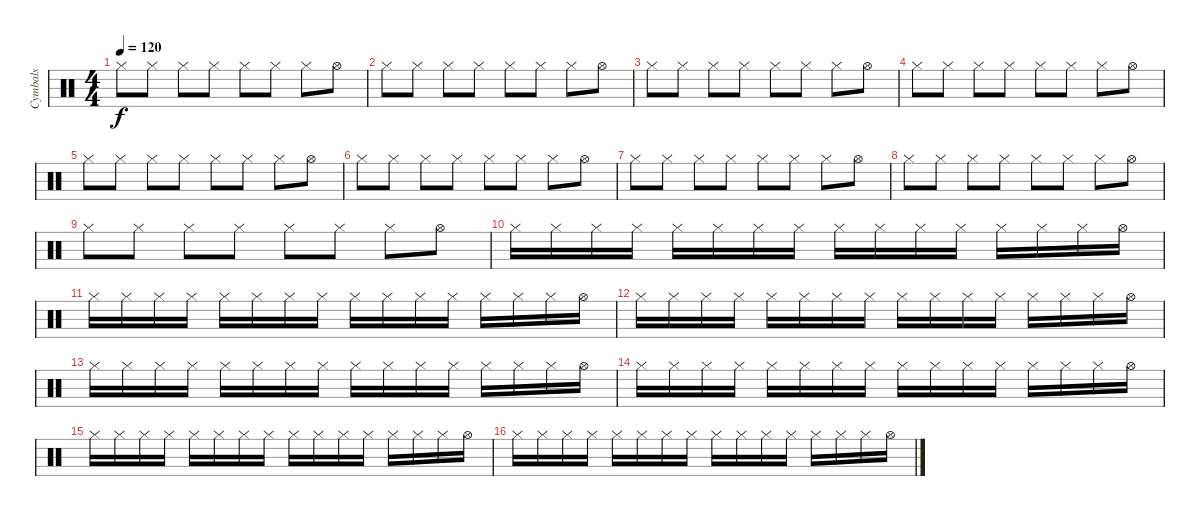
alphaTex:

\track ("Cymbals" "Cymbals") {instrument percussion}
\staff {score}
\articulation defaults
\ts (4 4)
\tempo 120
\clef neutral
\ks c "Hi-Hat (closed)".8{dy f} "Hi-Hat (closed)".8 "Hi-Hat (closed)".8 "Hi-Hat (closed)".8 "Hi-Hat (closed)".8 "Hi-Hat (closed)".8 "Hi-Hat (closed)".8 "Hi-Hat (open)".8
|
"Hi-Hat (closed)".8 "Hi-Hat (closed)".8 "Hi-Hat (closed)".8 "Hi-Hat (closed)".8 "Hi-Hat (closed)".8 "Hi-Hat (closed)".8 "Hi-Hat (closed)".8 "Hi-Hat (open)".8 |
"Hi-Hat (closed)".8 "Hi-Hat (closed)".8 "Hi-Hat (closed)".8 "Hi-Hat (closed)".8 "Hi-Hat (closed)".8 "Hi-Hat (closed)".8 "Hi-Hat (closed)".8 "Hi-Hat (open)".8 |
"Hi-Hat (closed)".8 "Hi-Hat (closed)".8 "Hi-Hat (closed)".8 "Hi-Hat (closed)".8 "Hi-Hat (closed)".8 "Hi-Hat (closed)".8 "Hi-Hat (closed)".8 "Hi-Hat (open)".8 |
"Hi-Hat (closed)".8 "Hi-Hat (closed)".8 "Hi-Hat (closed)".8 "Hi-Hat (closed)".8 "Hi-Hat (closed)".8 "Hi-Hat (closed)".8 "Hi-Hat (closed)".8 "Hi-Hat (open)".8 |
"Hi-Hat (closed)".8 "Hi-Hat (closed)".8 "Hi-Hat (closed)".8 "Hi-Hat (closed)".8 "Hi-Hat (closed)".8 "Hi-Hat (closed)".8 "Hi-Hat (closed)".8 "Hi-Hat (open)".8 |
"Hi-Hat (closed)".8 "Hi-Hat (closed)".8 "Hi-Hat (closed)".8 "Hi-Hat (closed)".8 "Hi-Hat (closed)".8 "Hi-Hat (closed)".8 "Hi-Hat (closed)".8 "Hi-Hat (open)".8 |
"Hi-Hat (closed)".8 "Hi-Hat (closed)".8 "Hi-Hat (closed)".8 "Hi-Hat (closed)".8 "Hi-Hat (closed)".8 "Hi-Hat (closed)".8 "Hi-Hat (closed)".8 "Hi-Hat (open)".8 |
"Hi-Hat (closed)".8 "Hi-Hat (closed)".8 "Hi-Hat (closed)".8 "Hi-Hat (closed)".8 "Hi-Hat (closed)".8 "Hi-Hat (closed)".8 "Hi-Hat (closed)".8 "Hi-Hat (open)".8 |
"Hi-Hat (closed)".16 "Hi-Hat (closed)".16 "Hi-Hat (closed)".16 "Hi-Hat (closed)".16 "Hi-Hat (closed)".16 "Hi-Hat (closed)".16 "Hi-Hat (closed)".16 "Hi-Hat (closed)".16 "Hi-Hat (closed)".16 "Hi-Hat (closed)".16 "Hi-Hat (closed)".16 "Hi-Hat (closed)".16 "Hi-Hat (closed)".16 "Hi-Hat (closed)".16 "Hi-Hat (closed)".16 "Hi-Hat (open)".16 |
"Hi-Hat (closed)".16 "Hi-Hat (closed)".16 "Hi-Hat (closed)".16 "Hi-Hat (closed)".16 "Hi-Hat (closed)".16 "Hi-Hat (closed)".16 "Hi-Hat (closed)".16 "Hi-Hat (closed)".16 "Hi-Hat (closed)".16 "Hi-Hat (closed)".16 "Hi-Hat (closed)".16 "Hi-Hat (closed)".16 "Hi-Hat (closed)".16 "Hi-Hat (closed)".16 "Hi-Hat (closed)".16 "Hi-Hat (open)".16 |
"Hi-Hat (closed)".16 "Hi-Hat (closed)".16 "Hi-Hat (closed)".16 "Hi-Hat (closed)".16 "Hi-Hat (closed)".16 "Hi-Hat (closed)".16 "Hi-Hat (closed)".16 "Hi-Hat (closed)".16 "Hi-Hat (closed)".16 "Hi-Hat (closed)".16 "Hi-Hat (closed)".16 "Hi-Hat (closed)".16 "Hi-Hat (closed)".16 "Hi-Hat (closed)".16 "Hi-Hat (closed)".16 "Hi-Hat (open)".16 |
"Hi-Hat (closed)".16 "Hi-Hat (closed)".16 "Hi-Hat (closed)".16 "Hi-Hat (closed)".16 "Hi-Hat (closed)".16 "Hi-Hat (closed)".16 "Hi-Hat (closed)".16 "Hi-Hat (closed)".16 "Hi-Hat (closed)".16 "Hi-Hat (closed)".16 "Hi-Hat (closed)".16 "Hi-Hat (closed)".16 "Hi-Hat (closed)".16 "Hi-Hat (closed)".16 "Hi-Hat (closed)".16 "Hi-Hat (open)".16 |
"Hi-Hat (closed)".16 "Hi-Hat (closed)".16 "Hi-Hat (closed)".16 "Hi-Hat (closed)".16 "Hi-Hat (closed)".16 "Hi-Hat (closed)".16 "Hi-Hat (closed)".16 "Hi-Hat (closed)".16 "Hi-Hat (closed)".16 "Hi-Hat (closed)".16 "Hi-Hat (closed)".16 "Hi-Hat (closed)".16 "Hi-Hat (closed)".16 "Hi-Hat (closed)".16 "Hi-Hat (closed)".16 "Hi-Hat (open)".16 |
"Hi-Hat (closed)".16 "Hi-Hat (closed)".16 "Hi-Hat (closed)".16 "Hi-Hat (closed)".16 "Hi-Hat (closed)".16 "Hi-Hat (closed)".16 "Hi-Hat (closed)".16 "Hi-Hat (closed)".16 "Hi-Hat (closed)".16 "Hi-Hat (closed)".16 "Hi-Hat (closed)".16 "Hi-Hat (closed)".16 "Hi-Hat (closed)".16 "Hi-Hat (closed)".16 "Hi-Hat (closed)".16 "Hi-Hat (open)".16 |
"Hi-Hat (closed)".16 "Hi-Hat (closed)".16 "Hi-Hat (closed)".16 "Hi-Hat (closed)".16 "Hi-Hat (closed)".16 "Hi-Hat (closed)".16 "Hi-Hat (closed)".16 "Hi-Hat (closed)".16 "Hi-Hat (closed)".16 "Hi-Hat (closed)".16 "Hi-Hat (closed)".16 "Hi-Hat (closed)".16 "Hi-Hat (closed)".16 "Hi-Hat (closed)".16 "Hi-Hat (closed)".16 "Hi-Hat (open)".16
